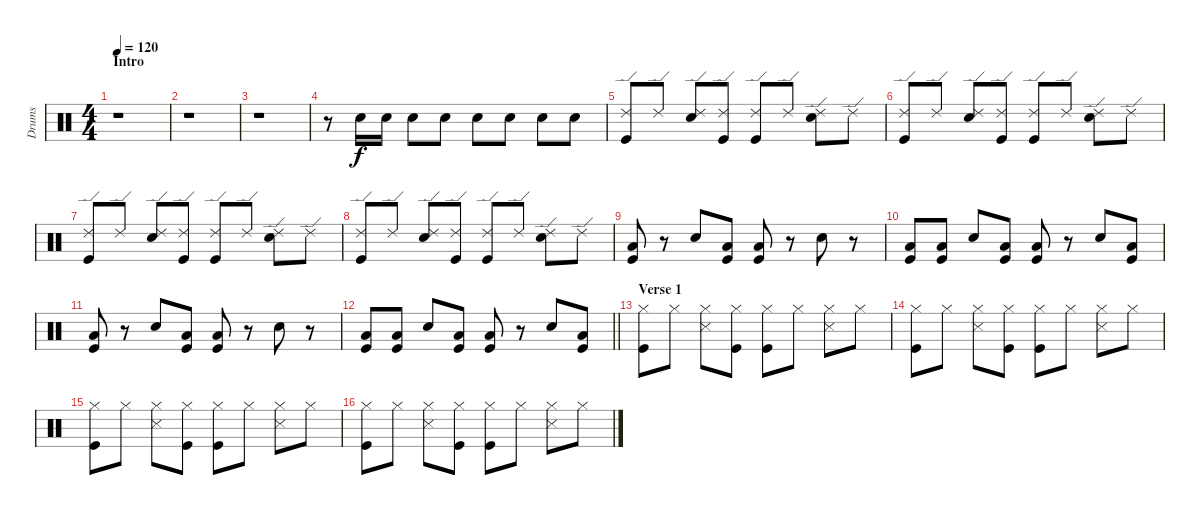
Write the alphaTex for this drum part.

\track ("Drums" "Drums") {instrument percussion}
\staff
\articulation defaults
\ts (4 4)
\section ("" "Intro")
\tempo 120
\clef neutral
\ks c
r.1{dy f} |
r.1 |
r.1 |
r.8 "Electric Snare (hit)".16 "Electric Snare (hit)".16 "Electric Snare (hit)".8 "Electric Snare (hit)".8 "Snare (hit) 2".8 "Snare (hit) 2".8 "Snare (hit) 2".8 "Snare (hit) 2".8 |
("Ride (edge) 2" "Kick (hit)").8 "Ride (edge) 2".8 ("Ride (edge) 2" "Snare (hit) 2").8 ("Ride (edge) 2" "Kick (hit)").8 ("Ride (edge) 2" "Kick (hit)").8 "Ride (edge) 2".8 ("Ride (edge) 2" "Snare (hit) 2").8 "Ride (edge) 2".8 |
("Ride (edge) 2" "Kick (hit)").8 "Ride (edge) 2".8 ("Ride (edge) 2" "Snare (hit) 2").8 ("Ride (edge) 2" "Kick (hit)").8 ("Ride (edge) 2" "Kick (hit)").8 "Ride (edge) 2".8 ("Ride (edge) 2" "Snare (hit) 2").8 "Ride (edge) 2".8 |
("Ride (edge) 2" "Kick (hit)").8 "Ride (edge) 2".8 ("Ride (edge) 2" "Snare (hit) 2").8 ("Ride (edge) 2" "Kick (hit)").8 ("Ride (edge) 2" "Kick (hit)").8 "Ride (edge) 2".8 ("Ride (edge) 2" "Snare (hit) 2").8 "Ride (edge) 2".8 |
("Ride (edge) 2" "Kick (hit)").8 "Ride (edge) 2".8 ("Ride (edge) 2" "Snare (hit) 2").8 ("Ride (edge) 2" "Kick (hit)").8 ("Ride (edge) 2" "Kick (hit)").8 "Ride (edge) 2".8 ("Ride (edge) 2" "Snare (hit) 2").8 "Ride (edge) 2".8 |
("Kick (hit)" "Low Floor Tom (hit)").8 r.8 "Snare (hit) 2".8 ("Kick (hit)" "Low Floor Tom (hit)").8 ("Kick (hit)" "Low Floor Tom (hit)").8 r.8 "Snare (hit) 2".8 r.8 |
("Kick (hit)" "Low Floor Tom (hit)").8 ("Kick (hit)" "Low Floor Tom (hit)").8 "Snare (hit) 2".8 ("Kick (hit)" "Low Floor Tom (hit)").8 ("Kick (hit)" "Low Floor Tom (hit)").8 r.8 "Snare (hit) 2".8 ("Kick (hit)" "Low Floor Tom (hit)").8 |
("Kick (hit)" "Low Floor Tom (hit)").8 r.8 "Snare (hit) 2".8 ("Kick (hit)" "Low Floor Tom (hit)").8 ("Kick (hit)" "Low Floor Tom (hit)").8 r.8 "Snare (hit) 2".8 r.8 |
\barLineRight lightlight
("Kick (hit)" "Low Floor Tom (hit)").8 ("Kick (hit)" "Low Floor Tom (hit)").8 "Snare (hit) 2".8 ("Kick (hit)" "Low Floor Tom (hit)").8 ("Kick (hit)" "Low Floor Tom (hit)").8 r.8 "Snare (hit) 2".8 ("Kick (hit)" "Low Floor Tom (hit)").8 |
\section ("" "Verse 1")
("Hi-Hat (closed)" "Kick (hit)").8 "Hi-Hat (closed)".8 ("Hi-Hat (closed)" "Snare (side stick) 3").8 ("Hi-Hat (closed)" "Kick (hit)").8 ("Hi-Hat (closed)" "Kick (hit)").8 "Hi-Hat (closed)".8 ("Hi-Hat (closed)" "Snare (side stick) 3").8 "Hi-Hat (closed)".8 |
("Hi-Hat (closed)" "Kick (hit)").8 "Hi-Hat (closed)".8 ("Hi-Hat (closed)" "Snare (side stick) 3").8 ("Hi-Hat (closed)" "Kick (hit)").8 ("Hi-Hat (closed)" "Kick (hit)").8 "Hi-Hat (closed)".8 ("Hi-Hat (closed)" "Snare (side stick) 3").8 "Hi-Hat (closed)".8 |
("Hi-Hat (closed)" "Kick (hit)").8 "Hi-Hat (closed)".8 ("Hi-Hat (closed)" "Snare (side stick) 3").8 ("Hi-Hat (closed)" "Kick (hit)").8 ("Hi-Hat (closed)" "Kick (hit)").8 "Hi-Hat (closed)".8 ("Hi-Hat (closed)" "Snare (side stick) 3").8 "Hi-Hat (closed)".8 |
("Hi-Hat (closed)" "Kick (hit)").8 "Hi-Hat (closed)".8 ("Hi-Hat (closed)" "Snare (side stick) 3").8 ("Hi-Hat (closed)" "Kick (hit)").8 ("Hi-Hat (closed)" "Kick (hit)").8 "Hi-Hat (closed)".8 ("Hi-Hat (closed)" "Snare (side stick) 3").8 "Hi-Hat (closed)".8
